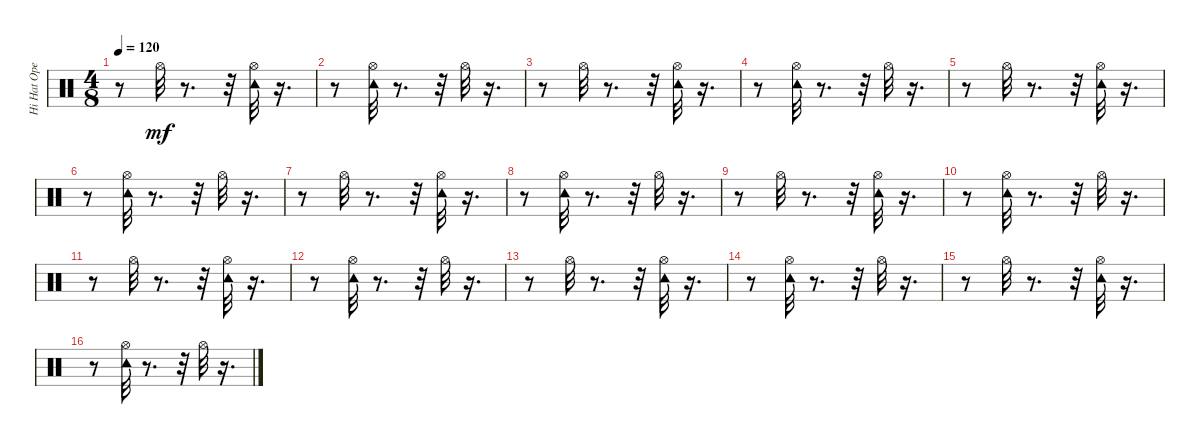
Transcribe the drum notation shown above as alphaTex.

\track ("Hi Hat Open" "Hi Hat Ope") {instrument percussion}
\staff {score}
\articulation defaults
\ts (4 8)
\tempo 120
\clef neutral
\ks c
r.8{dy mf} "Hi-Hat (open)".32 r.8{d} r.32 ("Tambourine (hit)" "Hi-Hat (open)").32 r.16{d} |
r.8 ("Tambourine (hit)" "Hi-Hat (open)").32 r.8{d} r.32 "Hi-Hat (open)".32 r.16{d} |
r.8 "Hi-Hat (open)".32 r.8{d} r.32 ("Tambourine (hit)" "Hi-Hat (open)").32 r.16{d} |
r.8 ("Tambourine (hit)" "Hi-Hat (open)").32 r.8{d} r.32 "Hi-Hat (open)".32 r.16{d} |
r.8 "Hi-Hat (open)".32 r.8{d} r.32 ("Tambourine (hit)" "Hi-Hat (open)").32 r.16{d} |
r.8 ("Tambourine (hit)" "Hi-Hat (open)").32 r.8{d} r.32 "Hi-Hat (open)".32 r.16{d} |
r.8 "Hi-Hat (open)".32 r.8{d} r.32 ("Tambourine (hit)" "Hi-Hat (open)").32 r.16{d} |
r.8 ("Tambourine (hit)" "Hi-Hat (open)").32 r.8{d} r.32 "Hi-Hat (open)".32 r.16{d} |
r.8 "Hi-Hat (open)".32 r.8{d} r.32 ("Tambourine (hit)" "Hi-Hat (open)").32 r.16{d} |
r.8 ("Tambourine (hit)" "Hi-Hat (open)").32 r.8{d} r.32 "Hi-Hat (open)".32 r.16{d} |
r.8 "Hi-Hat (open)".32 r.8{d} r.32 ("Tambourine (hit)" "Hi-Hat (open)").32 r.16{d} |
r.8 ("Tambourine (hit)" "Hi-Hat (open)").32 r.8{d} r.32 "Hi-Hat (open)".32 r.16{d} |
r.8 "Hi-Hat (open)".32 r.8{d} r.32 ("Tambourine (hit)" "Hi-Hat (open)").32 r.16{d} |
r.8 ("Tambourine (hit)" "Hi-Hat (open)").32 r.8{d} r.32 "Hi-Hat (open)".32 r.16{d} |
r.8 "Hi-Hat (open)".32 r.8{d} r.32 ("Tambourine (hit)" "Hi-Hat (open)").32 r.16{d} |
r.8 ("Tambourine (hit)" "Hi-Hat (open)").32 r.8{d} r.32 "Hi-Hat (open)".32 r.16{d}
